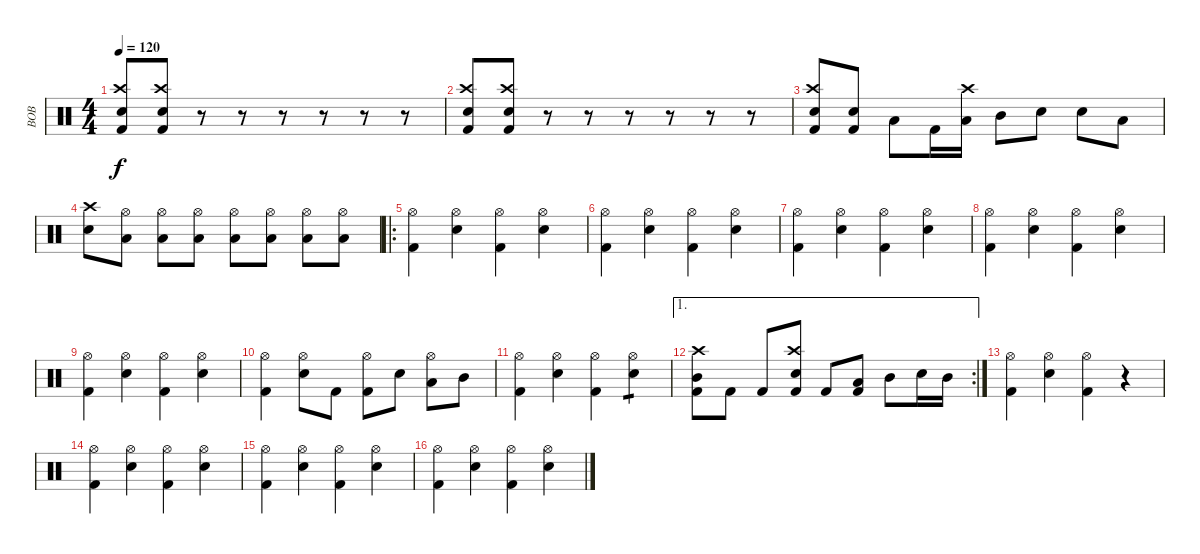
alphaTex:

\track ("BOB" "BOB") {instrument percussion}
\staff {score}
\articulation defaults
\ts (4 4)
\tempo 120
\clef neutral
\ks c
("Electric Snare (hit)" "Crash high (hit)" "Kick (hit) 2").8{dy f} ("Electric Snare (hit)" "Crash high (hit)" "Kick (hit) 2").8 r.8 r.8 r.8 r.8 r.8 r.8 |
("Electric Snare (hit)" "Crash high (hit)" "Kick (hit) 2").8 ("Electric Snare (hit)" "Crash high (hit)" "Kick (hit) 2").8 r.8 r.8 r.8 r.8 r.8 r.8 |
("Electric Snare (hit)" "Crash high (hit)" "Kick (hit) 2").8 ("Electric Snare (hit)" "Kick (hit) 2").8 "Low Tom (hit)".8 "Kick (hit) 2".16 ("Crash high (hit)" "Low Tom (hit)").16 "Mid Tom (hit)".8 "Electric Snare (hit)".8 "Electric Snare (hit)".8 "Low Tom (hit)".8 |
("Crash high (hit)" "Electric Snare (hit)").8 ("Hi-Hat (open)" "Low Tom (hit)").8{volume 7} ("Hi-Hat (open)" "Low Tom (hit)").8{volume 13} ("Hi-Hat (open)" "Low Tom (hit)").8 ("Hi-Hat (open)" "Low Tom (hit)").8 ("Hi-Hat (open)" "Low Tom (hit)").8 ("Hi-Hat (open)" "Low Tom (hit)").8 ("Hi-Hat (open)" "Low Tom (hit)").8 |
\ro
("Hi-Hat (open)" "Kick (hit) 2").4 ("Hi-Hat (open)" "Electric Snare (hit)").4 ("Hi-Hat (open)" "Kick (hit) 2").4 ("Hi-Hat (open)" "Electric Snare (hit)").4 |
("Hi-Hat (open)" "Kick (hit) 2").4 ("Hi-Hat (open)" "Electric Snare (hit)").4 ("Hi-Hat (open)" "Kick (hit) 2").4 ("Hi-Hat (open)" "Electric Snare (hit)").4 |
("Hi-Hat (open)" "Kick (hit) 2").4 ("Hi-Hat (open)" "Electric Snare (hit)").4 ("Hi-Hat (open)" "Kick (hit) 2").4 ("Hi-Hat (open)" "Electric Snare (hit)").4 |
("Hi-Hat (open)" "Kick (hit) 2").4 ("Hi-Hat (open)" "Electric Snare (hit)").4 ("Hi-Hat (open)" "Kick (hit) 2").4 ("Hi-Hat (open)" "Electric Snare (hit)").4 |
("Hi-Hat (open)" "Kick (hit) 2").4 ("Hi-Hat (open)" "Electric Snare (hit)").4 ("Hi-Hat (open)" "Kick (hit) 2").4 ("Hi-Hat (open)" "Electric Snare (hit)").4 |
("Hi-Hat (open)" "Kick (hit) 2").4 ("Hi-Hat (open)" "Electric Snare (hit)").8 "Kick (hit) 2".8 ("Hi-Hat (open)" "Kick (hit) 2").8 "Electric Snare (hit)".8 ("Hi-Hat (open)" "Low Tom (hit)").8 "Mid Tom (hit)".8 |
("Hi-Hat (open)" "Kick (hit) 2").4 ("Hi-Hat (open)" "Electric Snare (hit)").4 ("Hi-Hat (open)" "Kick (hit) 2").4 ("Hi-Hat (open)" "Electric Snare (hit)").4{tp 1} |
\ae 1
\rc 2
("Crash high (hit)" "Mid Tom (hit)" "Kick (hit) 2").8 "Kick (hit) 2".8 "Kick (hit) 2".8 ("Crash high (hit)" "Electric Snare (hit)" "Kick (hit) 2").8 "Kick (hit) 2".8 ("Low Tom (hit)" "Kick (hit) 2").8 "Mid Tom (hit)".8 "Electric Snare (hit)".16 "Mid Tom (hit)".16 |
("Hi-Hat (open)" "Kick (hit) 2").4 ("Hi-Hat (open)" "Electric Snare (hit)").4 ("Hi-Hat (open)" "Kick (hit) 2").4 r.4 |
("Hi-Hat (open)" "Kick (hit) 2").4 ("Hi-Hat (open)" "Electric Snare (hit)").4 ("Hi-Hat (open)" "Kick (hit) 2").4 ("Hi-Hat (open)" "Electric Snare (hit)").4 |
("Hi-Hat (open)" "Kick (hit) 2").4 ("Hi-Hat (open)" "Electric Snare (hit)").4 ("Hi-Hat (open)" "Kick (hit) 2").4 ("Hi-Hat (open)" "Electric Snare (hit)").4 |
("Hi-Hat (open)" "Kick (hit) 2").4 ("Hi-Hat (open)" "Electric Snare (hit)").4 ("Hi-Hat (open)" "Kick (hit) 2").4 ("Hi-Hat (open)" "Electric Snare (hit)").4
